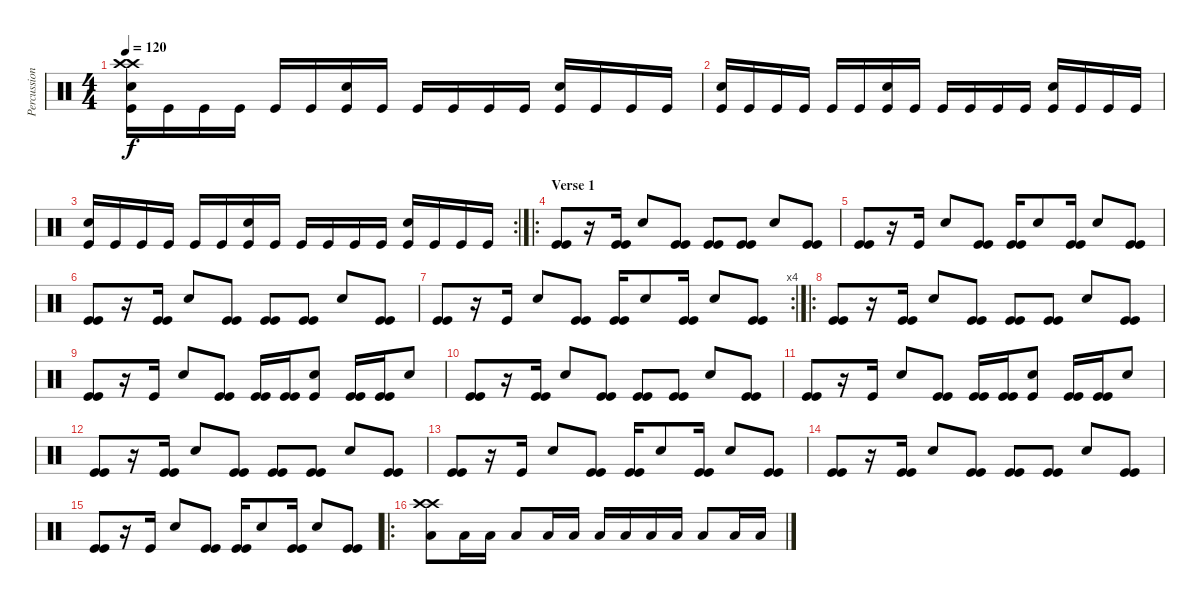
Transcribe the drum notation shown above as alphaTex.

\track ("Percussion" "Percussion") {instrument percussion}
\staff {score}
\articulation defaults
\ts (4 4)
\tempo 120
\clef neutral
\ks c
("Electric Snare (hit)" "Kick (hit)" "Crash high (hit)" "Crash high (hit)").16{dy f} "Kick (hit)".16 "Kick (hit)".16 "Kick (hit)".16 "Kick (hit)".16 "Kick (hit)".16 ("Electric Snare (hit)" "Kick (hit)").16 "Kick (hit)".16 "Kick (hit)".16 "Kick (hit)".16 "Kick (hit)".16 "Kick (hit)".16 ("Electric Snare (hit)" "Kick (hit)").16 "Kick (hit)".16 "Kick (hit)".16 "Kick (hit)".16 |
("Electric Snare (hit)" "Kick (hit)").16 "Kick (hit)".16 "Kick (hit)".16 "Kick (hit)".16 "Kick (hit)".16 "Kick (hit)".16 ("Electric Snare (hit)" "Kick (hit)").16 "Kick (hit)".16 "Kick (hit)".16 "Kick (hit)".16 "Kick (hit)".16 "Kick (hit)".16 ("Electric Snare (hit)" "Kick (hit)").16 "Kick (hit)".16 "Kick (hit)".16 "Kick (hit)".16 |
\rc 2
("Electric Snare (hit)" "Kick (hit)").16 "Kick (hit)".16 "Kick (hit)".16 "Kick (hit)".16 "Kick (hit)".16 "Kick (hit)".16 ("Electric Snare (hit)" "Kick (hit)").16 "Kick (hit)".16 "Kick (hit)".16 "Kick (hit)".16 "Kick (hit)".16 "Kick (hit)".16 ("Electric Snare (hit)" "Kick (hit)").16 "Kick (hit)".16 "Kick (hit)".16 "Kick (hit)".16 |
\ro
\section ("" "Verse 1")
("Kick (hit)" "Kick (hit)").8 r.16 ("Kick (hit)" "Kick (hit)").16 "Electric Snare (hit)".8 ("Kick (hit)" "Kick (hit)").8 ("Kick (hit)" "Kick (hit)").8 ("Kick (hit)" "Kick (hit)").8 "Electric Snare (hit)".8 ("Kick (hit)" "Kick (hit)").8 |
("Kick (hit)" "Kick (hit)").8 r.16 "Kick (hit)".16 "Electric Snare (hit)".8 ("Kick (hit)" "Kick (hit)").8 ("Kick (hit)" "Kick (hit)").16 "Electric Snare (hit)".8 ("Kick (hit)" "Kick (hit)").16 "Electric Snare (hit)".8 ("Kick (hit)" "Kick (hit)").8 |
("Kick (hit)" "Kick (hit)").8 r.16 ("Kick (hit)" "Kick (hit)").16 "Electric Snare (hit)".8 ("Kick (hit)" "Kick (hit)").8 ("Kick (hit)" "Kick (hit)").8 ("Kick (hit)" "Kick (hit)").8 "Electric Snare (hit)".8 ("Kick (hit)" "Kick (hit)").8 |
\rc 4
("Kick (hit)" "Kick (hit)").8 r.16 "Kick (hit)".16 "Electric Snare (hit)".8 ("Kick (hit)" "Kick (hit)").8 ("Kick (hit)" "Kick (hit)").16 "Electric Snare (hit)".8 ("Kick (hit)" "Kick (hit)").16 "Electric Snare (hit)".8 ("Kick (hit)" "Kick (hit)").8 |
\ro
("Kick (hit)" "Kick (hit)").8 r.16 ("Kick (hit)" "Kick (hit)").16 "Electric Snare (hit)".8 ("Kick (hit)" "Kick (hit)").8 ("Kick (hit)" "Kick (hit)").8 ("Kick (hit)" "Kick (hit)").8 "Electric Snare (hit)".8 ("Kick (hit)" "Kick (hit)").8 |
("Kick (hit)" "Kick (hit)").8 r.16 "Kick (hit)".16 "Electric Snare (hit)".8 ("Kick (hit)" "Kick (hit)").8 ("Kick (hit)" "Kick (hit)").16 ("Kick (hit)" "Kick (hit)").16 ("Electric Snare (hit)" "Kick (hit)").8 ("Kick (hit)" "Kick (hit)").16 ("Kick (hit)" "Kick (hit)").16 "Electric Snare (hit)".8 |
("Kick (hit)" "Kick (hit)").8 r.16 ("Kick (hit)" "Kick (hit)").16 "Electric Snare (hit)".8 ("Kick (hit)" "Kick (hit)").8 ("Kick (hit)" "Kick (hit)").8 ("Kick (hit)" "Kick (hit)").8 "Electric Snare (hit)".8 ("Kick (hit)" "Kick (hit)").8 |
("Kick (hit)" "Kick (hit)").8 r.16 "Kick (hit)".16 "Electric Snare (hit)".8 ("Kick (hit)" "Kick (hit)").8 ("Kick (hit)" "Kick (hit)").16 ("Kick (hit)" "Kick (hit)").16 ("Electric Snare (hit)" "Kick (hit)").8 ("Kick (hit)" "Kick (hit)").16 ("Kick (hit)" "Kick (hit)").16 "Electric Snare (hit)".8 |
("Kick (hit)" "Kick (hit)").8 r.16 ("Kick (hit)" "Kick (hit)").16 "Electric Snare (hit)".8 ("Kick (hit)" "Kick (hit)").8 ("Kick (hit)" "Kick (hit)").8 ("Kick (hit)" "Kick (hit)").8 "Electric Snare (hit)".8 ("Kick (hit)" "Kick (hit)").8 |
("Kick (hit)" "Kick (hit)").8 r.16 "Kick (hit)".16 "Electric Snare (hit)".8 ("Kick (hit)" "Kick (hit)").8 ("Kick (hit)" "Kick (hit)").16 "Electric Snare (hit)".8 ("Kick (hit)" "Kick (hit)").16 "Electric Snare (hit)".8 ("Kick (hit)" "Kick (hit)").8 |
("Kick (hit)" "Kick (hit)").8 r.16 ("Kick (hit)" "Kick (hit)").16 "Electric Snare (hit)".8 ("Kick (hit)" "Kick (hit)").8 ("Kick (hit)" "Kick (hit)").8 ("Kick (hit)" "Kick (hit)").8 "Electric Snare (hit)".8 ("Kick (hit)" "Kick (hit)").8 |
("Kick (hit)" "Kick (hit)").8 r.16 "Kick (hit)".16 "Electric Snare (hit)".8 ("Kick (hit)" "Kick (hit)").8 ("Kick (hit)" "Kick (hit)").16 "Electric Snare (hit)".8 ("Kick (hit)" "Kick (hit)").16 "Electric Snare (hit)".8 ("Kick (hit)" "Kick (hit)").8 |
\ro
("Low Tom (hit)" "Crash high (hit)" "Crash high (hit)").8 "Low Tom (hit)".16 "Low Tom (hit)".16 "Low Tom (hit)".8 "Low Tom (hit)".16 "Low Tom (hit)".16 "Low Tom (hit)".16 "Low Tom (hit)".16 "Low Tom (hit)".16 "Low Tom (hit)".16 "Low Tom (hit)".8 "Low Tom (hit)".16 "Low Tom (hit)".16
